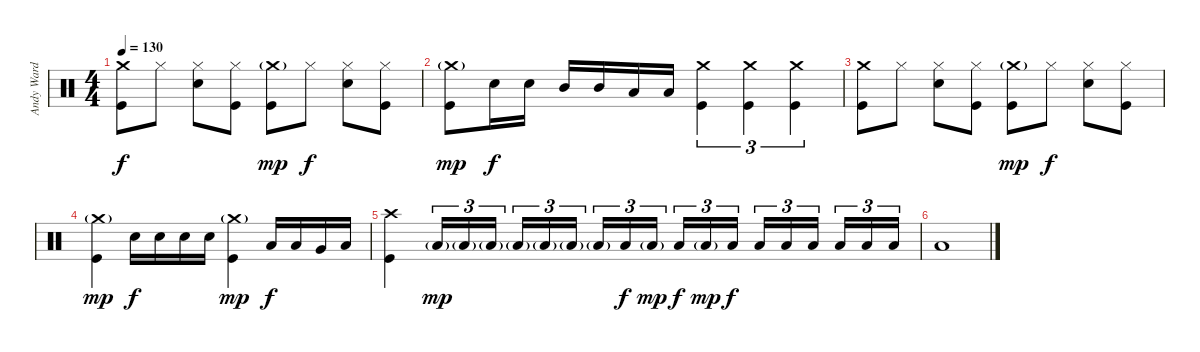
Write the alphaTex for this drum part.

\track ("Andy Ward (Drums)" "Andy Ward ") {instrument percussion}
\staff {score}
\articulation defaults
\ts (4 4)
\tempo 130
\clef neutral
\ks c
("Crash medium (hit)" "Kick (hit)").8{dy f} "Hi-Hat (closed)".8 ("Hi-Hat (closed)" "Electric Snare (hit)").8 ("Hi-Hat (closed)" "Kick (hit)").8 ("Crash medium (hit)"{g} "Kick (hit)").8{dy mp} "Hi-Hat (closed)".8{dy f} ("Hi-Hat (closed)" "Electric Snare (hit)").8 ("Hi-Hat (closed)" "Kick (hit)").8 |
("Crash medium (hit)"{g} "Kick (hit)").8{dy mp} "Electric Snare (hit)".16{dy f} "Electric Snare (hit)".16 "Mid Tom (hit)".16 "Mid Tom (hit)".16 "Low Tom (hit)".16 "Low Tom (hit)".16 ("Crash medium (hit)" "Kick (hit)").4{tu (3 2)} ("Crash medium (hit)" "Kick (hit)").4{tu (3 2)} ("Crash medium (hit)" "Kick (hit)").4{tu (3 2)} |
("Crash medium (hit)" "Kick (hit)").8 "Hi-Hat (closed)".8 ("Hi-Hat (closed)" "Electric Snare (hit)").8 ("Hi-Hat (closed)" "Kick (hit)").8 ("Crash medium (hit)"{g} "Kick (hit)").8{dy mp} "Hi-Hat (closed)".8{dy f} ("Hi-Hat (closed)" "Electric Snare (hit)").8 ("Hi-Hat (closed)" "Kick (hit)").8 |
("Crash medium (hit)"{g} "Kick (hit)").4{dy mp} "Electric Snare (hit)".16{dy f} "Electric Snare (hit)".16 "Electric Snare (hit)".16 "Electric Snare (hit)".16 ("Crash medium (hit)"{g} "Kick (hit)").4{dy mp} "Low Tom (hit)".16{dy f} "Low Tom (hit)".16 "Very Low Tom (hit)".16 "Low Floor Tom (hit)".16 |
("Crash high (hit)" "Kick (hit)").4 "Low Tom (hit)"{g}.16{tu (3 2) dy mp} "Low Tom (hit)"{g}.16{tu (3 2)} "Low Tom (hit)"{g}.16{tu (3 2) beam splitsecondary} "Low Tom (hit)"{g}.16{tu (3 2)} "Low Tom (hit)"{g}.16{tu (3 2)} "Low Tom (hit)"{g}.16{tu (3 2)} "Low Tom (hit)"{g}.16{tu (3 2)} "Low Tom (hit)".16{tu (3 2) dy f} "Low Tom (hit)"{g}.16{tu (3 2) dy mp beam splitsecondary} "Low Tom (hit)".16{tu (3 2) dy f} "Low Tom (hit)"{g}.16{tu (3 2) dy mp} "Low Tom (hit)".16{tu (3 2) dy f} "Low Tom (hit)".16{tu (3 2)} "Low Tom (hit)".16{tu (3 2)} "Low Tom (hit)".16{tu (3 2) beam splitsecondary} "Low Tom (hit)".16{tu (3 2)} "Low Tom (hit)".16{tu (3 2)} "Low Tom (hit)".16{tu (3 2)} |
"Low Tom (hit)".1
